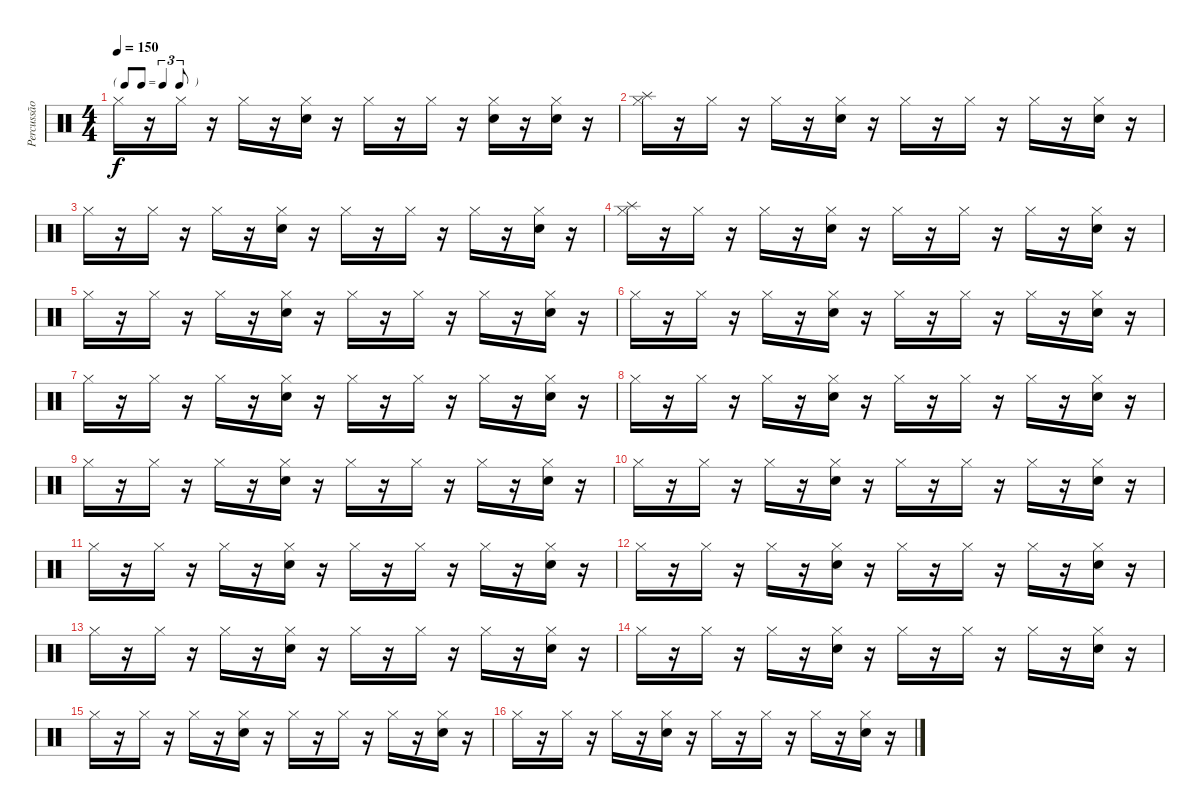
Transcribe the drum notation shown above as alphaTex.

\track ("Percussão" "Percussão") {instrument percussion}
\staff {score}
\articulation defaults
\ts (4 4)
\tf triplet8th
\tempo 150
\clef neutral
\ks c "Hi-Hat (closed)".16{dy f}
r.16 "Hi-Hat (closed)".16 r.16 "Hi-Hat (closed)".16 r.16 ("Hi-Hat (closed)" "Snare (hit) 2").16 r.16 "Hi-Hat (closed)".16 r.16 "Hi-Hat (closed)".16 r.16 ("Hi-Hat (closed)" "Snare (hit) 2").16 r.16 ("Hi-Hat (closed)" "Snare (hit) 2").16 r.16 |
("Hi-Hat (closed)" "Splash (hit)").16 r.16 "Hi-Hat (closed)".16 r.16 "Hi-Hat (closed)".16 r.16 ("Hi-Hat (closed)" "Snare (hit) 2").16 r.16 "Hi-Hat (closed)".16 r.16 "Hi-Hat (closed)".16 r.16 "Hi-Hat (closed)".16 r.16 ("Hi-Hat (closed)" "Snare (hit) 2").16 r.16 |
"Hi-Hat (closed)".16 r.16 "Hi-Hat (closed)".16 r.16 "Hi-Hat (closed)".16 r.16 ("Hi-Hat (closed)" "Snare (hit) 2").16 r.16 "Hi-Hat (closed)".16 r.16 "Hi-Hat (closed)".16 r.16 "Hi-Hat (closed)".16 r.16 ("Hi-Hat (closed)" "Snare (hit) 2").16 r.16 |
("Hi-Hat (closed)" "Splash (hit)").16 r.16 "Hi-Hat (closed)".16 r.16 "Hi-Hat (closed)".16 r.16 ("Hi-Hat (closed)" "Snare (hit) 2").16 r.16 "Hi-Hat (closed)".16 r.16 "Hi-Hat (closed)".16 r.16 "Hi-Hat (closed)".16 r.16 ("Hi-Hat (closed)" "Snare (hit) 2").16 r.16 |
"Hi-Hat (closed)".16 r.16 "Hi-Hat (closed)".16 r.16 "Hi-Hat (closed)".16 r.16 ("Hi-Hat (closed)" "Snare (hit) 2").16 r.16 "Hi-Hat (closed)".16 r.16 "Hi-Hat (closed)".16 r.16 "Hi-Hat (closed)".16 r.16 ("Hi-Hat (closed)" "Snare (hit) 2").16 r.16 |
"Hi-Hat (closed)".16 r.16 "Hi-Hat (closed)".16 r.16 "Hi-Hat (closed)".16 r.16 ("Hi-Hat (closed)" "Snare (hit) 2").16 r.16 "Hi-Hat (closed)".16 r.16 "Hi-Hat (closed)".16 r.16 "Hi-Hat (closed)".16 r.16 ("Hi-Hat (closed)" "Snare (hit) 2").16 r.16 |
"Hi-Hat (closed)".16 r.16 "Hi-Hat (closed)".16 r.16 "Hi-Hat (closed)".16 r.16 ("Hi-Hat (closed)" "Snare (hit) 2").16 r.16 "Hi-Hat (closed)".16 r.16 "Hi-Hat (closed)".16 r.16 "Hi-Hat (closed)".16 r.16 ("Hi-Hat (closed)" "Snare (hit) 2").16 r.16 |
"Hi-Hat (closed)".16 r.16 "Hi-Hat (closed)".16 r.16 "Hi-Hat (closed)".16 r.16 ("Hi-Hat (closed)" "Snare (hit) 2").16 r.16 "Hi-Hat (closed)".16 r.16 "Hi-Hat (closed)".16 r.16 "Hi-Hat (closed)".16 r.16 ("Hi-Hat (closed)" "Snare (hit) 2").16 r.16 |
"Hi-Hat (closed)".16 r.16 "Hi-Hat (closed)".16 r.16 "Hi-Hat (closed)".16 r.16 ("Hi-Hat (closed)" "Snare (hit) 2").16 r.16 "Hi-Hat (closed)".16 r.16 "Hi-Hat (closed)".16 r.16 "Hi-Hat (closed)".16 r.16 ("Hi-Hat (closed)" "Snare (hit) 2").16 r.16 |
"Hi-Hat (closed)".16 r.16 "Hi-Hat (closed)".16 r.16 "Hi-Hat (closed)".16 r.16 ("Hi-Hat (closed)" "Snare (hit) 2").16 r.16 "Hi-Hat (closed)".16 r.16 "Hi-Hat (closed)".16 r.16 "Hi-Hat (closed)".16 r.16 ("Hi-Hat (closed)" "Snare (hit) 2").16 r.16 |
"Hi-Hat (closed)".16 r.16 "Hi-Hat (closed)".16 r.16 "Hi-Hat (closed)".16 r.16 ("Hi-Hat (closed)" "Snare (hit) 2").16 r.16 "Hi-Hat (closed)".16 r.16 "Hi-Hat (closed)".16 r.16 "Hi-Hat (closed)".16 r.16 ("Hi-Hat (closed)" "Snare (hit) 2").16 r.16 |
"Hi-Hat (closed)".16 r.16 "Hi-Hat (closed)".16 r.16 "Hi-Hat (closed)".16 r.16 ("Hi-Hat (closed)" "Snare (hit) 2").16 r.16 "Hi-Hat (closed)".16 r.16 "Hi-Hat (closed)".16 r.16 "Hi-Hat (closed)".16 r.16 ("Hi-Hat (closed)" "Snare (hit) 2").16 r.16 |
"Hi-Hat (closed)".16 r.16 "Hi-Hat (closed)".16 r.16 "Hi-Hat (closed)".16 r.16 ("Hi-Hat (closed)" "Snare (hit) 2").16 r.16 "Hi-Hat (closed)".16 r.16 "Hi-Hat (closed)".16 r.16 "Hi-Hat (closed)".16 r.16 ("Hi-Hat (closed)" "Snare (hit) 2").16 r.16 |
"Hi-Hat (closed)".16 r.16 "Hi-Hat (closed)".16 r.16 "Hi-Hat (closed)".16 r.16 ("Hi-Hat (closed)" "Snare (hit) 2").16 r.16 "Hi-Hat (closed)".16 r.16 "Hi-Hat (closed)".16 r.16 "Hi-Hat (closed)".16 r.16 ("Hi-Hat (closed)" "Snare (hit) 2").16 r.16 |
"Hi-Hat (closed)".16 r.16 "Hi-Hat (closed)".16 r.16 "Hi-Hat (closed)".16 r.16 ("Hi-Hat (closed)" "Snare (hit) 2").16 r.16 "Hi-Hat (closed)".16 r.16 "Hi-Hat (closed)".16 r.16 "Hi-Hat (closed)".16 r.16 ("Hi-Hat (closed)" "Snare (hit) 2").16 r.16 |
"Hi-Hat (closed)".16 r.16 "Hi-Hat (closed)".16 r.16 "Hi-Hat (closed)".16 r.16 ("Hi-Hat (closed)" "Snare (hit) 2").16 r.16 "Hi-Hat (closed)".16 r.16 "Hi-Hat (closed)".16 r.16 "Hi-Hat (closed)".16 r.16 ("Hi-Hat (closed)" "Snare (hit) 2").16 r.16
